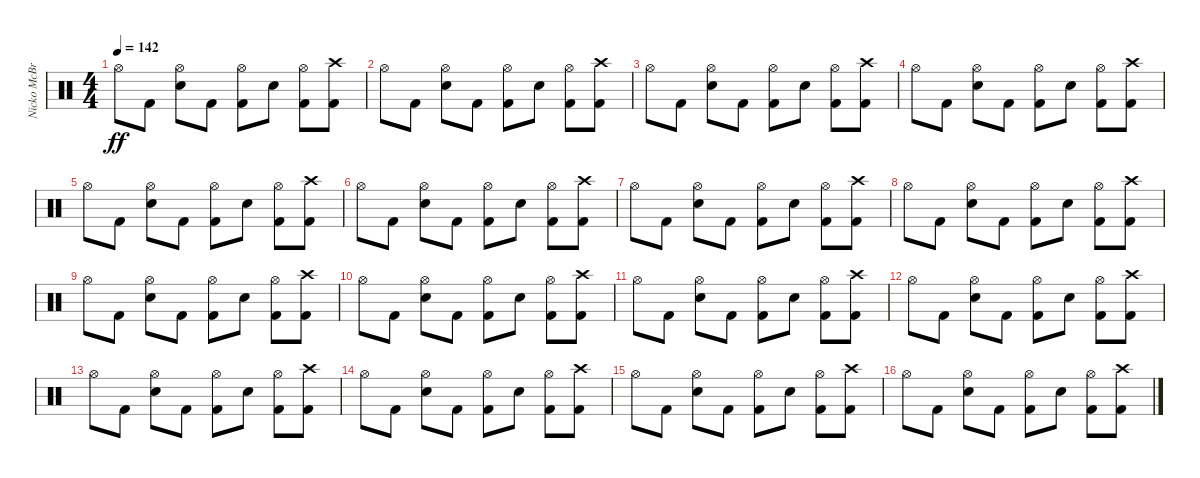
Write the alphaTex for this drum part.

\track ("Nicko McBrain" "Nicko McBr") {instrument percussion}
\staff {score}
\articulation defaults
\ts (4 4)
\tempo 142
\clef neutral
\ks c "Hi-Hat (open)".8{dy ff} "Kick (hit) 2".8
("Snare (hit) 2" "Hi-Hat (open)").8 "Kick (hit) 2".8 ("Kick (hit) 2" "Hi-Hat (open)").8 "Snare (hit) 2".8 ("Kick (hit) 2" "Hi-Hat (open)").8 ("Kick (hit) 2" "Crash high (hit)").8 |
"Hi-Hat (open)".8 "Kick (hit) 2".8 ("Snare (hit) 2" "Hi-Hat (open)").8 "Kick (hit) 2".8 ("Kick (hit) 2" "Hi-Hat (open)").8 "Snare (hit) 2".8 ("Kick (hit) 2" "Hi-Hat (open)").8 ("Kick (hit) 2" "Crash high (hit)").8 |
"Hi-Hat (open)".8 "Kick (hit) 2".8 ("Snare (hit) 2" "Hi-Hat (open)").8 "Kick (hit) 2".8 ("Kick (hit) 2" "Hi-Hat (open)").8 "Snare (hit) 2".8 ("Kick (hit) 2" "Hi-Hat (open)").8 ("Kick (hit) 2" "Crash high (hit)").8 |
"Hi-Hat (open)".8 "Kick (hit) 2".8 ("Snare (hit) 2" "Hi-Hat (open)").8 "Kick (hit) 2".8 ("Kick (hit) 2" "Hi-Hat (open)").8 "Snare (hit) 2".8 ("Kick (hit) 2" "Hi-Hat (open)").8 ("Kick (hit) 2" "Crash high (hit)").8 |
"Hi-Hat (open)".8 "Kick (hit) 2".8 ("Snare (hit) 2" "Hi-Hat (open)").8 "Kick (hit) 2".8 ("Kick (hit) 2" "Hi-Hat (open)").8 "Snare (hit) 2".8 ("Kick (hit) 2" "Hi-Hat (open)").8 ("Kick (hit) 2" "Crash high (hit)").8 |
"Hi-Hat (open)".8 "Kick (hit) 2".8 ("Snare (hit) 2" "Hi-Hat (open)").8 "Kick (hit) 2".8 ("Kick (hit) 2" "Hi-Hat (open)").8 "Snare (hit) 2".8 ("Kick (hit) 2" "Hi-Hat (open)").8 ("Kick (hit) 2" "Crash high (hit)").8 |
"Hi-Hat (open)".8 "Kick (hit) 2".8 ("Snare (hit) 2" "Hi-Hat (open)").8 "Kick (hit) 2".8 ("Kick (hit) 2" "Hi-Hat (open)").8 "Snare (hit) 2".8 ("Kick (hit) 2" "Hi-Hat (open)").8 ("Kick (hit) 2" "Crash high (hit)").8 |
"Hi-Hat (open)".8 "Kick (hit) 2".8 ("Snare (hit) 2" "Hi-Hat (open)").8 "Kick (hit) 2".8 ("Kick (hit) 2" "Hi-Hat (open)").8 "Snare (hit) 2".8 ("Kick (hit) 2" "Hi-Hat (open)").8 ("Kick (hit) 2" "Crash high (hit)").8 |
"Hi-Hat (open)".8 "Kick (hit) 2".8 ("Snare (hit) 2" "Hi-Hat (open)").8 "Kick (hit) 2".8 ("Kick (hit) 2" "Hi-Hat (open)").8 "Snare (hit) 2".8 ("Kick (hit) 2" "Hi-Hat (open)").8 ("Kick (hit) 2" "Crash high (hit)").8 |
"Hi-Hat (open)".8 "Kick (hit) 2".8 ("Snare (hit) 2" "Hi-Hat (open)").8 "Kick (hit) 2".8 ("Kick (hit) 2" "Hi-Hat (open)").8 "Snare (hit) 2".8 ("Kick (hit) 2" "Hi-Hat (open)").8 ("Kick (hit) 2" "Crash high (hit)").8 |
"Hi-Hat (open)".8 "Kick (hit) 2".8 ("Snare (hit) 2" "Hi-Hat (open)").8 "Kick (hit) 2".8 ("Kick (hit) 2" "Hi-Hat (open)").8 "Snare (hit) 2".8 ("Kick (hit) 2" "Hi-Hat (open)").8 ("Kick (hit) 2" "Crash high (hit)").8 |
"Hi-Hat (open)".8 "Kick (hit) 2".8 ("Snare (hit) 2" "Hi-Hat (open)").8 "Kick (hit) 2".8 ("Kick (hit) 2" "Hi-Hat (open)").8 "Snare (hit) 2".8 ("Kick (hit) 2" "Hi-Hat (open)").8 ("Kick (hit) 2" "Crash high (hit)").8 |
"Hi-Hat (open)".8 "Kick (hit) 2".8 ("Snare (hit) 2" "Hi-Hat (open)").8 "Kick (hit) 2".8 ("Kick (hit) 2" "Hi-Hat (open)").8 "Snare (hit) 2".8 ("Kick (hit) 2" "Hi-Hat (open)").8 ("Kick (hit) 2" "Crash high (hit)").8 |
"Hi-Hat (open)".8 "Kick (hit) 2".8 ("Snare (hit) 2" "Hi-Hat (open)").8 "Kick (hit) 2".8 ("Kick (hit) 2" "Hi-Hat (open)").8 "Snare (hit) 2".8 ("Kick (hit) 2" "Hi-Hat (open)").8 ("Kick (hit) 2" "Crash high (hit)").8 |
"Hi-Hat (open)".8 "Kick (hit) 2".8 ("Snare (hit) 2" "Hi-Hat (open)").8 "Kick (hit) 2".8 ("Kick (hit) 2" "Hi-Hat (open)").8 "Snare (hit) 2".8 ("Kick (hit) 2" "Hi-Hat (open)").8 ("Kick (hit) 2" "Crash high (hit)").8 |
"Hi-Hat (open)".8 "Kick (hit) 2".8 ("Snare (hit) 2" "Hi-Hat (open)").8 "Kick (hit) 2".8 ("Kick (hit) 2" "Hi-Hat (open)").8 "Snare (hit) 2".8 ("Kick (hit) 2" "Hi-Hat (open)").8 ("Kick (hit) 2" "Crash high (hit)").8
